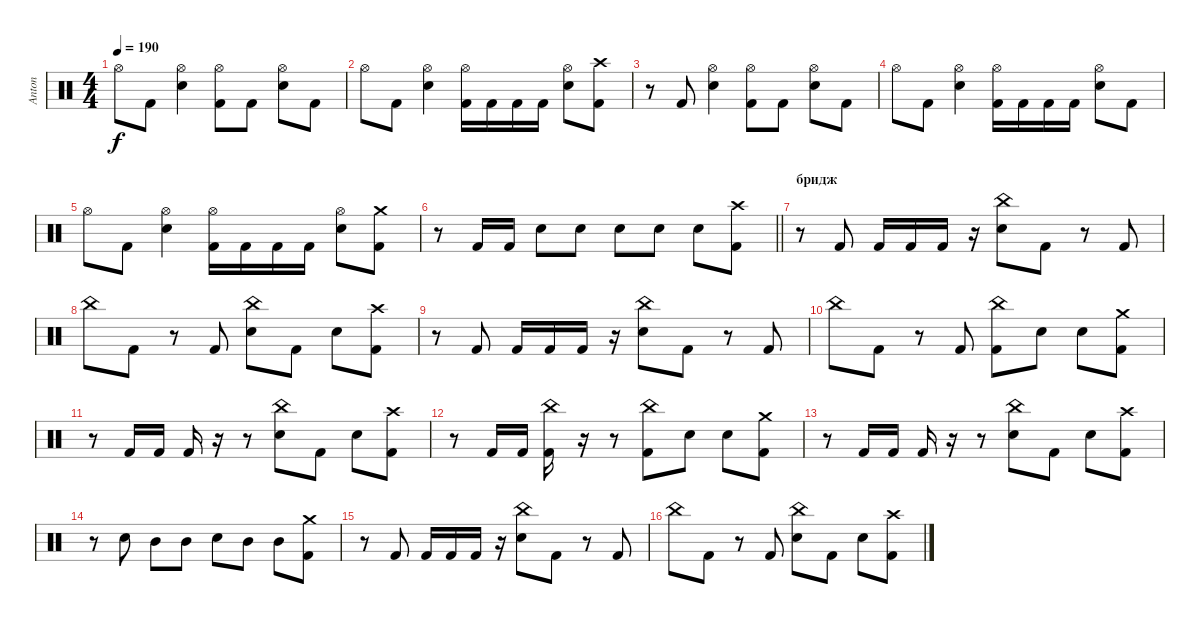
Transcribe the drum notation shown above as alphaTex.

\track ("Anton" "Anton") {instrument percussion}
\staff {score}
\articulation defaults
\ts (4 4)
\tempo 190
\clef neutral
\ks c "Hi-Hat (open)".8{dy f} "Kick (hit) 2".8
("Hi-Hat (open)" "Electric Snare (hit)").4 ("Hi-Hat (open)" "Kick (hit) 2").8 "Kick (hit) 2".8 ("Hi-Hat (open)" "Electric Snare (hit)").8 "Kick (hit) 2".8 |
"Hi-Hat (open)".8 "Kick (hit) 2".8 ("Hi-Hat (open)" "Electric Snare (hit)").4 ("Hi-Hat (open)" "Kick (hit) 2").16 "Kick (hit) 2".16 "Kick (hit) 2".16 "Kick (hit) 2".16 ("Hi-Hat (open)" "Electric Snare (hit)").8 ("Crash high (hit)" "Kick (hit) 2").8 |
r.8 "Kick (hit) 2".8 ("Hi-Hat (open)" "Electric Snare (hit)").4 ("Hi-Hat (open)" "Kick (hit) 2").8 "Kick (hit) 2".8 ("Hi-Hat (open)" "Electric Snare (hit)").8 "Kick (hit) 2".8 |
"Hi-Hat (open)".8 "Kick (hit) 2".8 ("Hi-Hat (open)" "Electric Snare (hit)").4 ("Hi-Hat (open)" "Kick (hit) 2").16 "Kick (hit) 2".16 "Kick (hit) 2".16 "Kick (hit) 2".16 ("Hi-Hat (open)" "Electric Snare (hit)").8 "Kick (hit) 2".8 |
"Hi-Hat (open)".8 "Kick (hit) 2".8 ("Hi-Hat (open)" "Electric Snare (hit)").4 ("Hi-Hat (open)" "Kick (hit) 2").16 "Kick (hit) 2".16 "Kick (hit) 2".16 "Kick (hit) 2".16 ("Hi-Hat (open)" "Electric Snare (hit)").8 ("Crash medium (hit)" "Kick (hit) 2").8 |
\barLineRight lightlight
r.8 "Kick (hit) 2".16 "Kick (hit) 2".16 "Electric Snare (hit)".8 "Electric Snare (hit)".8 "Electric Snare (hit)".8 "Electric Snare (hit)".8 "Electric Snare (hit)".8 ("Crash high (hit)" "Kick (hit) 2").8 |
\section ("" "бридж")
r.8 "Kick (hit) 2".8 "Kick (hit) 2".16 "Kick (hit) 2".16 "Kick (hit) 2".16 r.16 ("China (hit)" "Electric Snare (hit)").8 "Kick (hit) 2".8 r.8 "Kick (hit) 2".8 |
"China (hit)".8 "Kick (hit) 2".8 r.8 "Kick (hit) 2".8 ("China (hit)" "Electric Snare (hit)").8 "Kick (hit) 2".8 "Electric Snare (hit)".8 ("Crash high (hit)" "Kick (hit) 2").8 |
r.8 "Kick (hit) 2".8 "Kick (hit) 2".16 "Kick (hit) 2".16 "Kick (hit) 2".16 r.16 ("China (hit)" "Electric Snare (hit)").8 "Kick (hit) 2".8 r.8 "Kick (hit) 2".8 |
"China (hit)".8 "Kick (hit) 2".8 r.8 "Kick (hit) 2".8 ("China (hit)" "Kick (hit) 2").8 "Electric Snare (hit)".8 "Electric Snare (hit)".8 ("Crash medium (hit)" "Kick (hit) 2").8 |
r.8 "Kick (hit) 2".16 "Kick (hit) 2".16 "Kick (hit) 2".16 r.16 r.8 ("China (hit)" "Electric Snare (hit)").8 "Kick (hit) 2".8 "Electric Snare (hit)".8 ("Crash high (hit)" "Kick (hit) 2").8 |
r.8 "Kick (hit) 2".16 "Kick (hit) 2".16 ("China (hit)" "Kick (hit) 2").16 r.16 r.8 ("China (hit)" "Kick (hit) 2").8 "Electric Snare (hit)".8 "Electric Snare (hit)".8 ("Crash medium (hit)" "Kick (hit) 2").8 |
r.8 "Kick (hit) 2".16 "Kick (hit) 2".16 "Kick (hit) 2".16 r.16 r.8 ("China (hit)" "Electric Snare (hit)").8 "Kick (hit) 2".8 "Electric Snare (hit)".8 ("Crash high (hit)" "Kick (hit) 2").8 |
r.8 "Electric Snare (hit)".8 "Mid Tom (hit)".8 "Mid Tom (hit)".8 "Electric Snare (hit)".8 "Mid Tom (hit)".8 "Mid Tom (hit)".8 ("Crash medium (hit)" "Kick (hit) 2").8 |
r.8 "Kick (hit) 2".8 "Kick (hit) 2".16 "Kick (hit) 2".16 "Kick (hit) 2".16 r.16 ("China (hit)" "Electric Snare (hit)").8 "Kick (hit) 2".8 r.8 "Kick (hit) 2".8 |
"China (hit)".8 "Kick (hit) 2".8 r.8 "Kick (hit) 2".8 ("China (hit)" "Electric Snare (hit)").8 "Kick (hit) 2".8 "Electric Snare (hit)".8 ("Crash high (hit)" "Kick (hit) 2").8
